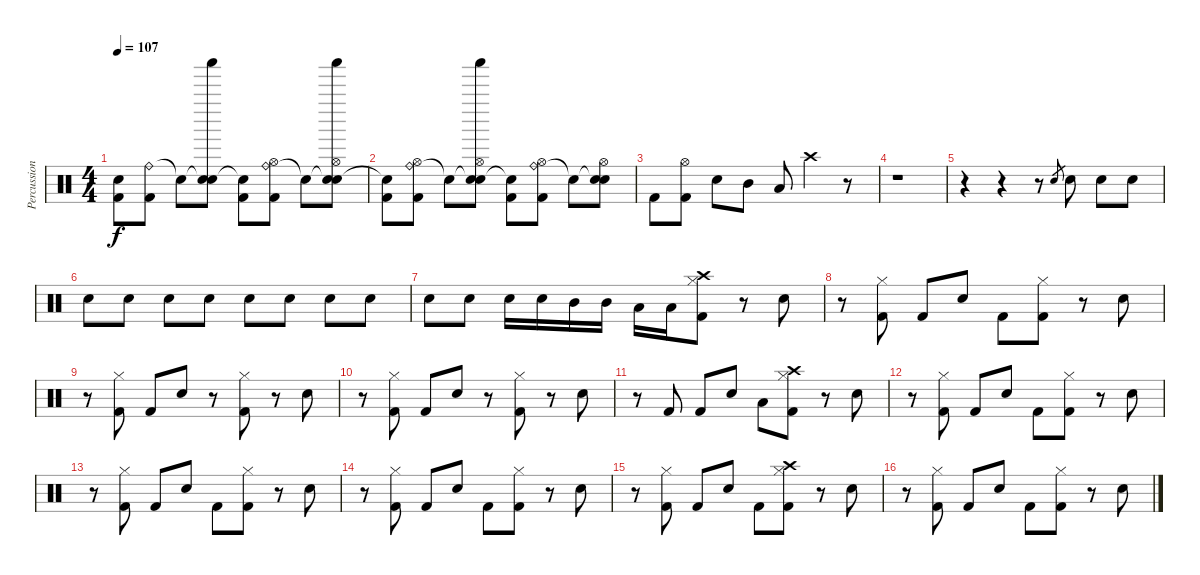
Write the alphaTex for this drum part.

\track ("Percussion" "Percussion") {instrument percussion}
\staff {score}
\articulation defaults
\ts (4 4)
\tempo 107
\clef neutral
\ks c
("Snare (hit)"{t} "Kick (hit) 2").8{dy f} ("Ride (bell)" "Kick (hit) 2").8 "Snare (hit)"{t}.8 ("Snare (hit)"{t} "Shaker (hit)" "Electric Snare (hit)").8 ("Snare (hit)"{t} "Kick (hit) 2").8 ("Ride (bell)" "Hi-Hat (open)" "Kick (hit) 2").8 "Snare (hit)"{t}.8 ("Snare (hit)"{t} "Shaker (hit)" "Hi-Hat (open)" "Electric Snare (hit)").8 |
("Snare (hit)"{t} "Kick (hit) 2").8 ("Ride (bell)" "Hi-Hat (open)" "Kick (hit) 2").8 "Snare (hit)"{t}.8 ("Snare (hit)"{t} "Shaker (hit)" "Hi-Hat (open)" "Electric Snare (hit)").8 ("Snare (hit)"{t} "Kick (hit) 2").8 ("Ride (bell)" "Hi-Hat (open)" "Kick (hit) 2").8 "Snare (hit)"{t}.8 ("Snare (hit)"{t} "Hi-Hat (open)" "Electric Snare (hit)").8 |
"Kick (hit) 2".8 ("Hi-Hat (open)" "Kick (hit) 2").8 "Electric Snare (hit)".8 "Mid Tom (hit)".8 "Low Tom (hit)".8 "Crash high (hit)".4 r.8 |
r.1 |
r.4 r.4 r.8 "Electric Snare (hit)".8{gr} "Electric Snare (hit)".8 "Electric Snare (hit)".8 "Electric Snare (hit)".8 |
"Electric Snare (hit)".8 "Electric Snare (hit)".8 "Electric Snare (hit)".8 "Electric Snare (hit)".8 "Electric Snare (hit)".8 "Electric Snare (hit)".8 "Electric Snare (hit)".8 "Electric Snare (hit)".8 |
"Electric Snare (hit)".8 "Electric Snare (hit)".8 "Electric Snare (hit)".16 "Electric Snare (hit)".16 "Mid Tom (hit)".16 "Mid Tom (hit)".16 "Low Tom (hit)".16 "Low Tom (hit)".16 ("Crash high (hit)" "Hi-Hat (closed)" "Kick (hit) 2").8 r.8 "Electric Snare (hit)".8 |
r.8 ("Hi-Hat (closed)" "Kick (hit) 2").8 "Kick (hit) 2".8 "Electric Snare (hit)".8 "Kick (hit) 2".8 ("Hi-Hat (closed)" "Kick (hit) 2").8 r.8 "Electric Snare (hit)".8 |
r.8 ("Hi-Hat (closed)" "Kick (hit) 2").8 "Kick (hit) 2".8 "Electric Snare (hit)".8 r.8 ("Hi-Hat (closed)" "Kick (hit) 2").8 r.8 "Electric Snare (hit)".8 |
r.8 ("Hi-Hat (closed)" "Kick (hit) 2").8 "Kick (hit) 2".8 "Electric Snare (hit)".8 r.8 ("Hi-Hat (closed)" "Kick (hit) 2").8 r.8 "Electric Snare (hit)".8 |
r.8 "Kick (hit) 2".8 "Kick (hit) 2".8 "Electric Snare (hit)".8 "Low Tom (hit)".8 ("Crash high (hit)" "Hi-Hat (closed)" "Kick (hit) 2").8 r.8 "Electric Snare (hit)".8 |
r.8 ("Hi-Hat (closed)" "Kick (hit) 2").8 "Kick (hit) 2".8 "Electric Snare (hit)".8 "Kick (hit) 2".8 ("Hi-Hat (closed)" "Kick (hit) 2").8 r.8 "Electric Snare (hit)".8 |
r.8 ("Hi-Hat (closed)" "Kick (hit) 2").8 "Kick (hit) 2".8 "Electric Snare (hit)".8 "Kick (hit) 2".8 ("Hi-Hat (closed)" "Kick (hit) 2").8 r.8 "Electric Snare (hit)".8 |
r.8 ("Hi-Hat (closed)" "Kick (hit) 2").8 "Kick (hit) 2".8 "Electric Snare (hit)".8 "Kick (hit) 2".8 ("Hi-Hat (closed)" "Kick (hit) 2").8 r.8 "Electric Snare (hit)".8 |
r.8 ("Hi-Hat (closed)" "Kick (hit) 2").8 "Kick (hit) 2".8 "Electric Snare (hit)".8 "Kick (hit) 2".8 ("Crash high (hit)" "Hi-Hat (closed)" "Kick (hit) 2").8 r.8 "Electric Snare (hit)".8 |
r.8 ("Hi-Hat (closed)" "Kick (hit) 2").8 "Kick (hit) 2".8 "Electric Snare (hit)".8 "Kick (hit) 2".8 ("Hi-Hat (closed)" "Kick (hit) 2").8 r.8 "Electric Snare (hit)".8
